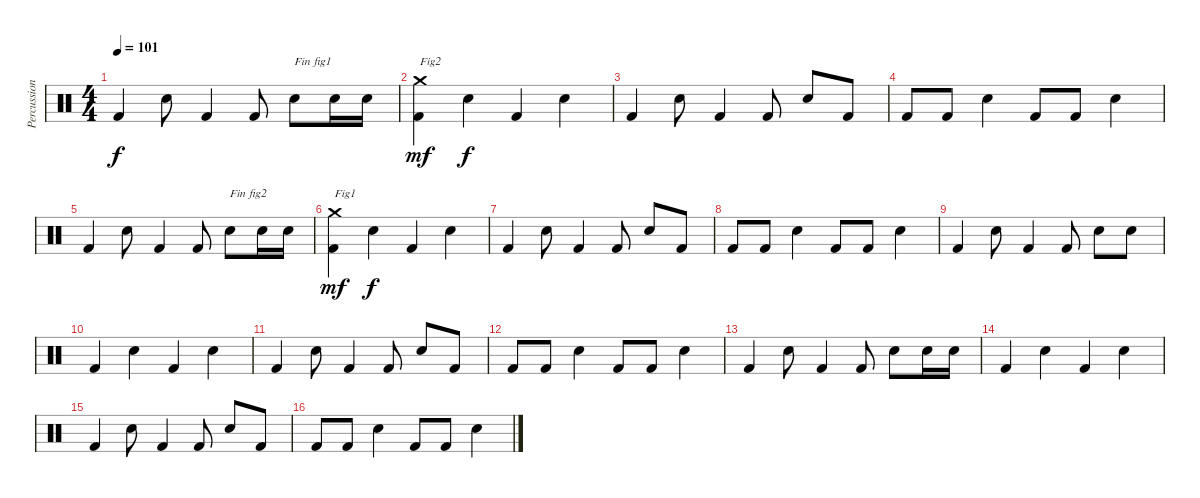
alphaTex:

\track ("Percussions" "Percussion") {instrument percussion}
\staff {score}
\articulation defaults
\ts (4 4)
\tempo 101
\clef neutral
\ks c "Kick (hit) 2".4{dy f} "Snare (hit) 2".8 "Kick (hit) 2".4 "Kick (hit) 2".8 "Snare (hit) 2".8{txt "Fin fig1"} "Snare (hit) 2".16 "Snare (hit) 2".16
|
("Kick (hit) 2" "Crash medium (hit)").4{txt "Fig2" dy mf} "Snare (hit) 2".4{dy f} "Kick (hit) 2".4 "Snare (hit) 2".4 |
"Kick (hit) 2".4 "Snare (hit) 2".8 "Kick (hit) 2".4 "Kick (hit) 2".8 "Snare (hit) 2".8 "Kick (hit) 2".8 |
"Kick (hit) 2".8 "Kick (hit) 2".8 "Snare (hit) 2".4 "Kick (hit) 2".8 "Kick (hit) 2".8 "Snare (hit) 2".4 |
"Kick (hit) 2".4 "Snare (hit) 2".8 "Kick (hit) 2".4 "Kick (hit) 2".8 "Snare (hit) 2".8{txt "Fin fig2"} "Snare (hit) 2".16 "Snare (hit) 2".16 |
("Kick (hit) 2" "Crash medium (hit)").4{txt "Fig1" dy mf} "Snare (hit) 2".4{dy f} "Kick (hit) 2".4 "Snare (hit) 2".4 |
"Kick (hit) 2".4 "Snare (hit) 2".8 "Kick (hit) 2".4 "Kick (hit) 2".8 "Snare (hit) 2".8 "Kick (hit) 2".8 |
"Kick (hit) 2".8 "Kick (hit) 2".8 "Snare (hit) 2".4 "Kick (hit) 2".8 "Kick (hit) 2".8 "Snare (hit) 2".4 |
"Kick (hit) 2".4 "Snare (hit) 2".8 "Kick (hit) 2".4 "Kick (hit) 2".8 "Snare (hit) 2".8 "Snare (hit) 2".8 |
"Kick (hit) 2".4 "Snare (hit) 2".4 "Kick (hit) 2".4 "Snare (hit) 2".4 |
"Kick (hit) 2".4 "Snare (hit) 2".8 "Kick (hit) 2".4 "Kick (hit) 2".8 "Snare (hit) 2".8 "Kick (hit) 2".8 |
"Kick (hit) 2".8 "Kick (hit) 2".8 "Snare (hit) 2".4 "Kick (hit) 2".8 "Kick (hit) 2".8 "Snare (hit) 2".4 |
"Kick (hit) 2".4 "Snare (hit) 2".8 "Kick (hit) 2".4 "Kick (hit) 2".8 "Snare (hit) 2".8 "Snare (hit) 2".16 "Snare (hit) 2".16 |
"Kick (hit) 2".4 "Snare (hit) 2".4 "Kick (hit) 2".4 "Snare (hit) 2".4 |
"Kick (hit) 2".4 "Snare (hit) 2".8 "Kick (hit) 2".4 "Kick (hit) 2".8 "Snare (hit) 2".8 "Kick (hit) 2".8 |
"Kick (hit) 2".8 "Kick (hit) 2".8 "Snare (hit) 2".4 "Kick (hit) 2".8 "Kick (hit) 2".8 "Snare (hit) 2".4
